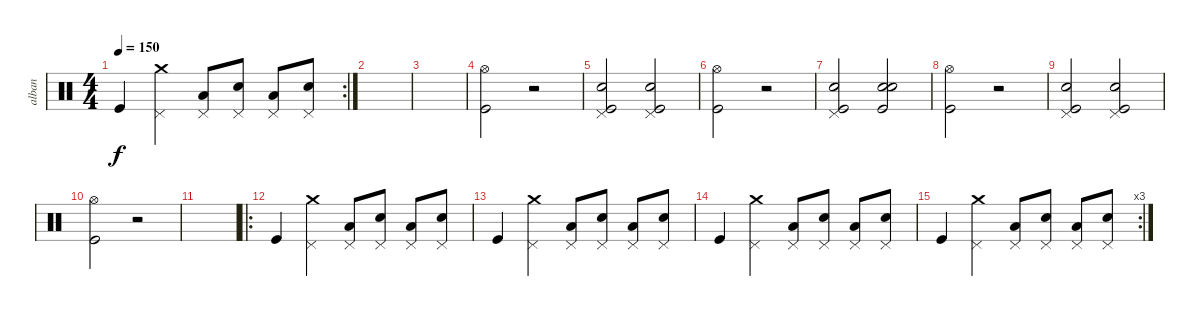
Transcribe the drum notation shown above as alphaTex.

\track ("alban" "alban") {instrument percussion}
\staff {score}
\articulation defaults
\rc 2
\ts (4 4)
\tempo 150
\clef neutral
\ks c "Kick (hit)".4{dy f}
("Pedal Hi-Hat (hit)" "Crash medium (hit)").4 ("Pedal Hi-Hat (hit)" "Low Floor Tom (hit)").8 ("Pedal Hi-Hat (hit)" "Snare (hit) 2").8 ("Pedal Hi-Hat (hit)" "Low Floor Tom (hit)").8 ("Pedal Hi-Hat (hit)" "Snare (hit) 2").8 |
|
|
("Hi-Hat (open)" "Kick (hit)").2 r.2 |
("Snare (hit) 2" "Kick (hit)" "Pedal Hi-Hat (hit)").2 ("Snare (hit) 2" "Kick (hit)" "Pedal Hi-Hat (hit)").2 |
("Hi-Hat (open)" "Kick (hit)").2 r.2 |
("Snare (hit) 2" "Kick (hit)" "Pedal Hi-Hat (hit)").2 ("Snare (hit) 2" "Kick (hit)" "Snare (hit)").2 |
("Hi-Hat (open)" "Kick (hit)").2 r.2 |
("Snare (hit) 2" "Kick (hit)" "Pedal Hi-Hat (hit)").2 ("Snare (hit) 2" "Kick (hit)" "Pedal Hi-Hat (hit)").2 |
("Hi-Hat (open)" "Kick (hit)").2 r.2 |
|
\ro "Kick (hit)".4
("Pedal Hi-Hat (hit)" "Crash medium (hit)").4 ("Pedal Hi-Hat (hit)" "Low Floor Tom (hit)").8 ("Pedal Hi-Hat (hit)" "Snare (hit) 2").8 ("Pedal Hi-Hat (hit)" "Low Floor Tom (hit)").8 ("Pedal Hi-Hat (hit)" "Snare (hit) 2").8 |
"Kick (hit)".4 ("Pedal Hi-Hat (hit)" "Crash medium (hit)").4 ("Pedal Hi-Hat (hit)" "Low Floor Tom (hit)").8 ("Pedal Hi-Hat (hit)" "Snare (hit) 2").8 ("Pedal Hi-Hat (hit)" "Low Floor Tom (hit)").8 ("Pedal Hi-Hat (hit)" "Snare (hit) 2").8 |
"Kick (hit)".4 ("Pedal Hi-Hat (hit)" "Crash medium (hit)").4 ("Pedal Hi-Hat (hit)" "Low Floor Tom (hit)").8 ("Pedal Hi-Hat (hit)" "Snare (hit) 2").8 ("Pedal Hi-Hat (hit)" "Low Floor Tom (hit)").8 ("Pedal Hi-Hat (hit)" "Snare (hit) 2").8 |
\rc 3 "Kick (hit)".4
("Pedal Hi-Hat (hit)" "Crash medium (hit)").4 ("Pedal Hi-Hat (hit)" "Low Floor Tom (hit)").8 ("Pedal Hi-Hat (hit)" "Snare (hit) 2").8 ("Pedal Hi-Hat (hit)" "Low Floor Tom (hit)").8 ("Pedal Hi-Hat (hit)" "Snare (hit) 2").8
